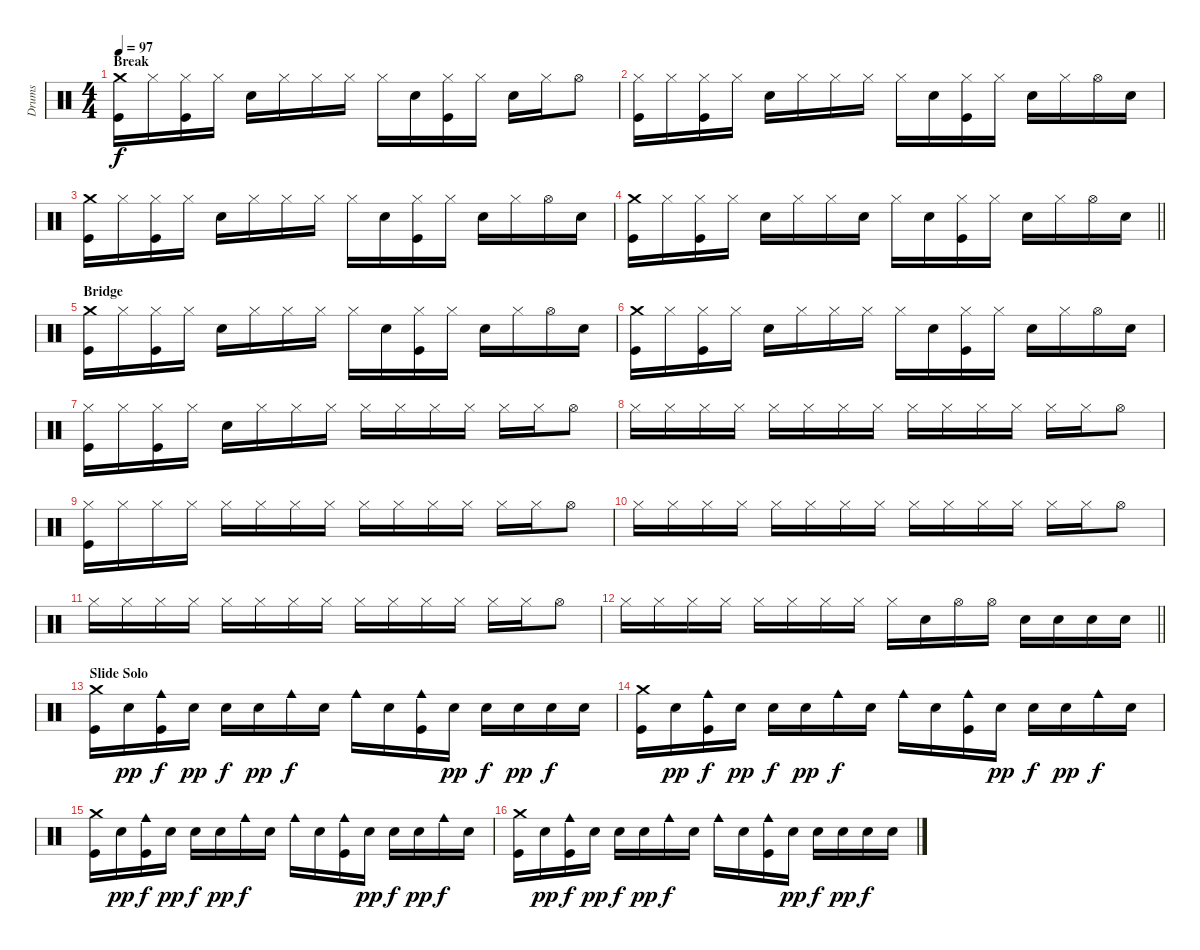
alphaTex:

\track ("Drums" "Drums") {instrument percussion}
\staff {score}
\articulation defaults
\ts (4 4)
\section ("" "Break")
\tempo 97
\clef neutral
\ks c
("Crash medium (hit)" "Kick (hit)").16{dy f} "Hi-Hat (closed)".16 ("Hi-Hat (closed)" "Kick (hit)").16 "Hi-Hat (closed)".16 "Electric Snare (hit)".16 "Hi-Hat (closed)".16 "Hi-Hat (closed)".16 "Hi-Hat (closed)".16 "Hi-Hat (closed)".16 "Electric Snare (hit)".16 ("Hi-Hat (closed)" "Kick (hit)").16 "Hi-Hat (closed)".16 "Electric Snare (hit)".16 "Hi-Hat (closed)".16 "Hi-Hat (open)".8 |
("Hi-Hat (closed)" "Kick (hit)").16 "Hi-Hat (closed)".16 ("Hi-Hat (closed)" "Kick (hit)").16 "Hi-Hat (closed)".16 "Electric Snare (hit)".16 "Hi-Hat (closed)".16 "Hi-Hat (closed)".16 "Hi-Hat (closed)".16 "Hi-Hat (closed)".16 "Electric Snare (hit)".16 ("Hi-Hat (closed)" "Kick (hit)").16 "Hi-Hat (closed)".16 "Electric Snare (hit)".16 "Hi-Hat (closed)".16 "Hi-Hat (open)".16 "Electric Snare (hit)".16 |
("Crash medium (hit)" "Kick (hit)").16 "Hi-Hat (closed)".16 ("Hi-Hat (closed)" "Kick (hit)").16 "Hi-Hat (closed)".16 "Electric Snare (hit)".16 "Hi-Hat (closed)".16 "Hi-Hat (closed)".16 "Hi-Hat (closed)".16 "Hi-Hat (closed)".16 "Electric Snare (hit)".16 ("Hi-Hat (closed)" "Kick (hit)").16 "Hi-Hat (closed)".16 "Electric Snare (hit)".16 "Hi-Hat (closed)".16 "Hi-Hat (open)".16 "Electric Snare (hit)".16 |
\barLineRight lightlight
("Crash medium (hit)" "Kick (hit)").16 "Hi-Hat (closed)".16 ("Hi-Hat (closed)" "Kick (hit)").16 "Hi-Hat (closed)".16 "Electric Snare (hit)".16 "Hi-Hat (closed)".16 "Hi-Hat (closed)".16 "Electric Snare (hit)".16 "Hi-Hat (closed)".16 "Electric Snare (hit)".16 ("Hi-Hat (closed)" "Kick (hit)").16 "Hi-Hat (closed)".16 "Electric Snare (hit)".16 "Hi-Hat (closed)".16 "Hi-Hat (open)".16 "Electric Snare (hit)".16 |
\section ("" "Bridge")
("Crash medium (hit)" "Kick (hit)").16 "Hi-Hat (closed)".16 ("Hi-Hat (closed)" "Kick (hit)").16 "Hi-Hat (closed)".16 "Electric Snare (hit)".16 "Hi-Hat (closed)".16 "Hi-Hat (closed)".16 "Hi-Hat (closed)".16 "Hi-Hat (closed)".16 "Electric Snare (hit)".16 ("Hi-Hat (closed)" "Kick (hit)").16 "Hi-Hat (closed)".16 "Electric Snare (hit)".16 "Hi-Hat (closed)".16 "Hi-Hat (open)".16 "Electric Snare (hit)".16 |
("Crash medium (hit)" "Kick (hit)").16 "Hi-Hat (closed)".16 ("Hi-Hat (closed)" "Kick (hit)").16 "Hi-Hat (closed)".16 "Electric Snare (hit)".16 "Hi-Hat (closed)".16 "Hi-Hat (closed)".16 "Hi-Hat (closed)".16 "Hi-Hat (closed)".16 "Electric Snare (hit)".16 ("Hi-Hat (closed)" "Kick (hit)").16 "Hi-Hat (closed)".16 "Electric Snare (hit)".16 "Hi-Hat (closed)".16 "Hi-Hat (open)".16 "Electric Snare (hit)".16 |
("Hi-Hat (closed)" "Kick (hit)").16 "Hi-Hat (closed)".16 ("Hi-Hat (closed)" "Kick (hit)").16 "Hi-Hat (closed)".16 "Electric Snare (hit)".16 "Hi-Hat (closed)".16 "Hi-Hat (closed)".16 "Hi-Hat (closed)".16 "Hi-Hat (closed)".16 "Hi-Hat (closed)".16 "Hi-Hat (closed)".16 "Hi-Hat (closed)".16 "Hi-Hat (closed)".16 "Hi-Hat (closed)".16 "Hi-Hat (open)".8 |
"Hi-Hat (closed)".16 "Hi-Hat (closed)".16 "Hi-Hat (closed)".16 "Hi-Hat (closed)".16 "Hi-Hat (closed)".16 "Hi-Hat (closed)".16 "Hi-Hat (closed)".16 "Hi-Hat (closed)".16 "Hi-Hat (closed)".16 "Hi-Hat (closed)".16 "Hi-Hat (closed)".16 "Hi-Hat (closed)".16 "Hi-Hat (closed)".16 "Hi-Hat (closed)".16 "Hi-Hat (open)".8 |
("Hi-Hat (closed)" "Kick (hit)").16 "Hi-Hat (closed)".16 "Hi-Hat (closed)".16 "Hi-Hat (closed)".16 "Hi-Hat (closed)".16 "Hi-Hat (closed)".16 "Hi-Hat (closed)".16 "Hi-Hat (closed)".16 "Hi-Hat (closed)".16 "Hi-Hat (closed)".16 "Hi-Hat (closed)".16 "Hi-Hat (closed)".16 "Hi-Hat (closed)".16 "Hi-Hat (closed)".16 "Hi-Hat (open)".8 |
"Hi-Hat (closed)".16 "Hi-Hat (closed)".16 "Hi-Hat (closed)".16 "Hi-Hat (closed)".16 "Hi-Hat (closed)".16 "Hi-Hat (closed)".16 "Hi-Hat (closed)".16 "Hi-Hat (closed)".16 "Hi-Hat (closed)".16 "Hi-Hat (closed)".16 "Hi-Hat (closed)".16 "Hi-Hat (closed)".16 "Hi-Hat (closed)".16 "Hi-Hat (closed)".16 "Hi-Hat (open)".8 |
"Hi-Hat (closed)".16 "Hi-Hat (closed)".16 "Hi-Hat (closed)".16 "Hi-Hat (closed)".16 "Hi-Hat (closed)".16 "Hi-Hat (closed)".16 "Hi-Hat (closed)".16 "Hi-Hat (closed)".16 "Hi-Hat (closed)".16 "Hi-Hat (closed)".16 "Hi-Hat (closed)".16 "Hi-Hat (closed)".16 "Hi-Hat (closed)".16 "Hi-Hat (closed)".16 "Hi-Hat (open)".8 |
\barLineRight lightlight "Hi-Hat (closed)".16 "Hi-Hat (closed)".16 "Hi-Hat (closed)".16 "Hi-Hat (closed)".16 "Hi-Hat (closed)".16 "Hi-Hat (closed)".16 "Hi-Hat (closed)".16 "Hi-Hat (closed)".16 "Hi-Hat (closed)".16 "Electric Snare (hit)".16 "Hi-Hat (open)".16 "Hi-Hat (open)".16 "Electric Snare (hit)".16 "Electric Snare (hit)".16 "Electric Snare (hit)".16 "Electric Snare (hit)".16
|
\section ("" "Slide Solo")
("Crash medium (hit)" "Kick (hit)").16 "Electric Snare (hit)".16{dy pp} ("Cowbell medium (hit)" "Kick (hit)").16{dy f} "Electric Snare (hit)".16{dy pp} "Electric Snare (hit)".16{dy f} "Electric Snare (hit)".16{dy pp} "Cowbell medium (hit)".16{dy f} "Electric Snare (hit)".16 "Cowbell medium (hit)".16 "Electric Snare (hit)".16 ("Cowbell medium (hit)" "Kick (hit)").16 "Electric Snare (hit)".16{dy pp} "Electric Snare (hit)".16{dy f} "Electric Snare (hit)".16{dy pp} "Electric Snare (hit)".16{dy f} "Electric Snare (hit)".16 |
("Crash medium (hit)" "Kick (hit)").16 "Electric Snare (hit)".16{dy pp} ("Cowbell medium (hit)" "Kick (hit)").16{dy f} "Electric Snare (hit)".16{dy pp} "Electric Snare (hit)".16{dy f} "Electric Snare (hit)".16{dy pp} "Cowbell medium (hit)".16{dy f} "Electric Snare (hit)".16 "Cowbell medium (hit)".16 "Electric Snare (hit)".16 ("Cowbell medium (hit)" "Kick (hit)").16 "Electric Snare (hit)".16{dy pp} "Electric Snare (hit)".16{dy f} "Electric Snare (hit)".16{dy pp} "Cowbell medium (hit)".16{dy f} "Electric Snare (hit)".16 |
("Crash medium (hit)" "Kick (hit)").16 "Electric Snare (hit)".16{dy pp} ("Cowbell medium (hit)" "Kick (hit)").16{dy f} "Electric Snare (hit)".16{dy pp} "Electric Snare (hit)".16{dy f} "Electric Snare (hit)".16{dy pp} "Cowbell medium (hit)".16{dy f} "Electric Snare (hit)".16 "Cowbell medium (hit)".16 "Electric Snare (hit)".16 ("Cowbell medium (hit)" "Kick (hit)").16 "Electric Snare (hit)".16{dy pp} "Electric Snare (hit)".16{dy f} "Electric Snare (hit)".16{dy pp} "Cowbell medium (hit)".16{dy f} "Electric Snare (hit)".16 |
("Crash medium (hit)" "Kick (hit)").16 "Electric Snare (hit)".16{dy pp} ("Cowbell medium (hit)" "Kick (hit)").16{dy f} "Electric Snare (hit)".16{dy pp} "Electric Snare (hit)".16{dy f} "Electric Snare (hit)".16{dy pp} "Cowbell medium (hit)".16{dy f} "Electric Snare (hit)".16 "Cowbell medium (hit)".16 "Electric Snare (hit)".16 ("Cowbell medium (hit)" "Kick (hit)").16 "Electric Snare (hit)".16{dy pp} "Electric Snare (hit)".16{dy f} "Electric Snare (hit)".16{dy pp} "Electric Snare (hit)".16{dy f} "Electric Snare (hit)".16
